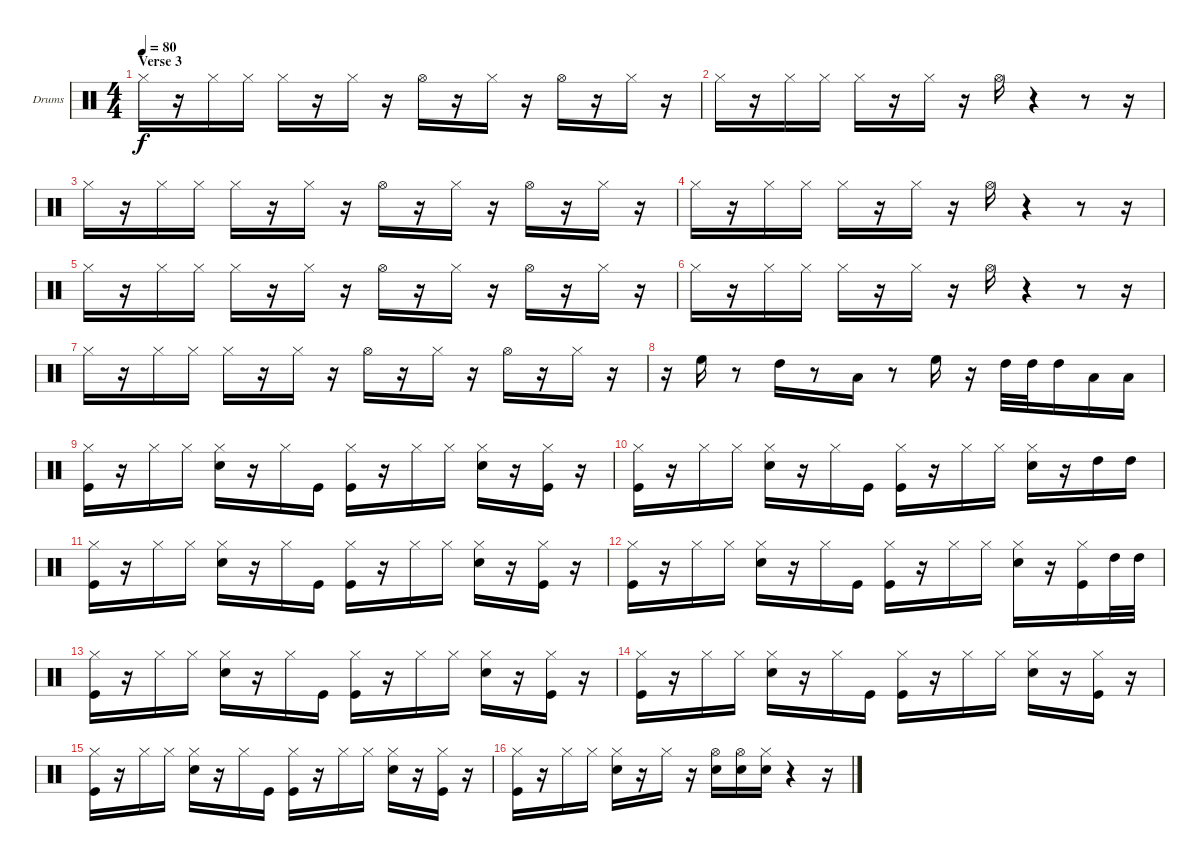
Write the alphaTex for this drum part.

\bracketExtendMode groupsimilarinstruments
\firstSystemTrackNameOrientation horizontal
\otherSystemsTrackNameOrientation horizontal
\track ("Drumkit" "Drums") {instrument percussion}
\staff {score}
\articulation defaults
\ts (4 4)
\section ("" "Verse 3")
\tempo 80
\clef neutral
\ks c "Hi-Hat (closed)".16{dy f}
r.16 "Hi-Hat (closed)".16 "Hi-Hat (closed)".16 "Hi-Hat (closed)".16 r.16 "Hi-Hat (closed)".16 r.16 "Hi-Hat (open)".16 r.16 "Hi-Hat (closed)".16 r.16 "Hi-Hat (open)".16 r.16 "Hi-Hat (closed)".16 r.16 |
"Hi-Hat (closed)".16 r.16 "Hi-Hat (closed)".16 "Hi-Hat (closed)".16 "Hi-Hat (closed)".16 r.16 "Hi-Hat (closed)".16 r.16 "Hi-Hat (open)".16 r.4 r.8 r.16 |
"Hi-Hat (closed)".16 r.16 "Hi-Hat (closed)".16 "Hi-Hat (closed)".16 "Hi-Hat (closed)".16 r.16 "Hi-Hat (closed)".16 r.16 "Hi-Hat (open)".16 r.16 "Hi-Hat (closed)".16 r.16 "Hi-Hat (open)".16 r.16 "Hi-Hat (closed)".16 r.16 |
"Hi-Hat (closed)".16 r.16 "Hi-Hat (closed)".16 "Hi-Hat (closed)".16 "Hi-Hat (closed)".16 r.16 "Hi-Hat (closed)".16 r.16 "Hi-Hat (open)".16 r.4 r.8 r.16 |
"Hi-Hat (closed)".16 r.16 "Hi-Hat (closed)".16 "Hi-Hat (closed)".16 "Hi-Hat (closed)".16 r.16 "Hi-Hat (closed)".16 r.16 "Hi-Hat (open)".16 r.16 "Hi-Hat (closed)".16 r.16 "Hi-Hat (open)".16 r.16 "Hi-Hat (closed)".16 r.16 |
"Hi-Hat (closed)".16 r.16 "Hi-Hat (closed)".16 "Hi-Hat (closed)".16 "Hi-Hat (closed)".16 r.16 "Hi-Hat (closed)".16 r.16 "Hi-Hat (open)".16 r.4 r.8 r.16 |
"Hi-Hat (closed)".16 r.16 "Hi-Hat (closed)".16 "Hi-Hat (closed)".16 "Hi-Hat (closed)".16 r.16 "Hi-Hat (closed)".16 r.16 "Hi-Hat (open)".16 r.16 "Hi-Hat (closed)".16 r.16 "Hi-Hat (open)".16 r.16 "Hi-Hat (closed)".16 r.16 |
r.16 "High Floor Tom (hit)".16 r.8 "High Tom (hit)".16 r.8 "Low Tom (hit)".16 r.8 "High Floor Tom (hit)".16 r.16 "High Tom (hit)".32 "High Tom (hit)".32 "High Tom (hit)".16 "Low Tom (hit)".16 "Low Tom (hit)".16 |
("Kick (hit)" "Hi-Hat (closed)").16 r.16 "Hi-Hat (closed)".16 "Hi-Hat (closed)".16 ("Snare (hit) 2" "Hi-Hat (closed)").16 r.16 "Hi-Hat (closed)".16 "Kick (hit)".16 ("Kick (hit)" "Hi-Hat (closed)").16 r.16 "Hi-Hat (closed)".16 "Hi-Hat (closed)".16 ("Snare (hit) 2" "Hi-Hat (closed)").16 r.16 ("Kick (hit)" "Hi-Hat (closed)").16 r.16 |
("Kick (hit)" "Hi-Hat (closed)").16 r.16 "Hi-Hat (closed)".16 "Hi-Hat (closed)".16 ("Snare (hit) 2" "Hi-Hat (closed)").16 r.16 "Hi-Hat (closed)".16 "Kick (hit)".16 ("Kick (hit)" "Hi-Hat (closed)").16 r.16 "Hi-Hat (closed)".16 "Hi-Hat (closed)".16 ("Snare (hit) 2" "Hi-Hat (closed)").16 r.16 "High Tom (hit)".16 "High Tom (hit)".16 |
("Kick (hit)" "Hi-Hat (closed)").16 r.16 "Hi-Hat (closed)".16 "Hi-Hat (closed)".16 ("Snare (hit) 2" "Hi-Hat (closed)").16 r.16 "Hi-Hat (closed)".16 "Kick (hit)".16 ("Kick (hit)" "Hi-Hat (closed)").16 r.16 "Hi-Hat (closed)".16 "Hi-Hat (closed)".16 ("Snare (hit) 2" "Hi-Hat (closed)").16 r.16 ("Kick (hit)" "Hi-Hat (closed)").16 r.16 |
("Kick (hit)" "Hi-Hat (closed)").16 r.16 "Hi-Hat (closed)".16 "Hi-Hat (closed)".16 ("Snare (hit) 2" "Hi-Hat (closed)").16 r.16 "Hi-Hat (closed)".16 "Kick (hit)".16 ("Kick (hit)" "Hi-Hat (closed)").16 r.16 "Hi-Hat (closed)".16 "Hi-Hat (closed)".16 ("Snare (hit) 2" "Hi-Hat (closed)").16 r.16 ("Kick (hit)" "Hi-Hat (closed)").16 "High Tom (hit)".32 "High Tom (hit)".32 |
("Kick (hit)" "Hi-Hat (closed)").16 r.16 "Hi-Hat (closed)".16 "Hi-Hat (closed)".16 ("Snare (hit) 2" "Hi-Hat (closed)").16 r.16 "Hi-Hat (closed)".16 "Kick (hit)".16 ("Kick (hit)" "Hi-Hat (closed)").16 r.16 "Hi-Hat (closed)".16 "Hi-Hat (closed)".16 ("Snare (hit) 2" "Hi-Hat (closed)").16 r.16 ("Kick (hit)" "Hi-Hat (closed)").16 r.16 |
("Kick (hit)" "Hi-Hat (closed)").16 r.16 "Hi-Hat (closed)".16 "Hi-Hat (closed)".16 ("Snare (hit) 2" "Hi-Hat (closed)").16 r.16 "Hi-Hat (closed)".16 "Kick (hit)".16 ("Kick (hit)" "Hi-Hat (closed)").16 r.16 "Hi-Hat (closed)".16 "Hi-Hat (closed)".16 ("Snare (hit) 2" "Hi-Hat (closed)").16 r.16 ("Kick (hit)" "Hi-Hat (closed)").16 r.16 |
("Kick (hit)" "Hi-Hat (closed)").16 r.16 "Hi-Hat (closed)".16 "Hi-Hat (closed)".16 ("Snare (hit) 2" "Hi-Hat (closed)").16 r.16 "Hi-Hat (closed)".16 "Kick (hit)".16 ("Kick (hit)" "Hi-Hat (closed)").16 r.16 "Hi-Hat (closed)".16 "Hi-Hat (closed)".16 ("Snare (hit) 2" "Hi-Hat (closed)").16 r.16 ("Kick (hit)" "Hi-Hat (closed)").16 r.16 |
("Kick (hit)" "Hi-Hat (closed)").16 r.16 "Hi-Hat (closed)".16 "Hi-Hat (closed)".16 ("Snare (hit) 2" "Hi-Hat (closed)").16 r.16 "Hi-Hat (closed)".16 r.16 ("Hi-Hat (open)" "Snare (hit) 2").16 ("Hi-Hat (open)" "Snare (hit) 2").16 ("Hi-Hat (closed)" "Snare (hit) 2").16 r.4 r.16
